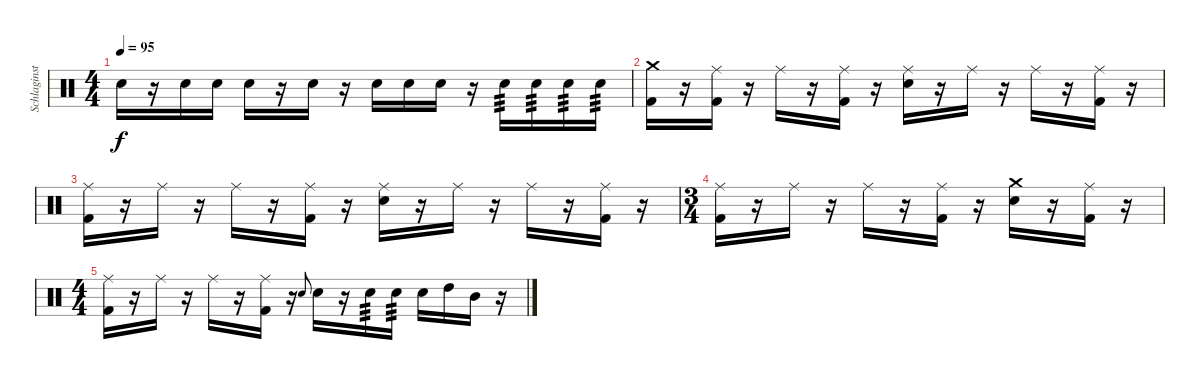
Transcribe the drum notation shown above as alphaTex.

\track ("Schlaginstrumente - Auswahl" "Schlaginst") {instrument percussion}
\staff {score}
\articulation defaults
\ts (4 4)
\tempo 95
\clef neutral
\ks c "Electric Snare (hit)".16{dy f}
r.16 "Electric Snare (hit)".16 "Electric Snare (hit)".16 "Electric Snare (hit)".16 r.16 "Electric Snare (hit)".16 r.16 "Electric Snare (hit)".16 "Electric Snare (hit)".16 "Electric Snare (hit)".16 r.16 "Electric Snare (hit)".16{tp 3} "Electric Snare (hit)".16{tp 3} "Electric Snare (hit)".16{tp 3} "Electric Snare (hit)".16{tp 3} |
("Crash medium (hit)" "Kick (hit) 2").16 r.16 ("Ride (middle)" "Kick (hit) 2").16 r.16 "Ride (middle)".16 r.16 ("Ride (middle)" "Kick (hit) 2").16 r.16 ("Ride (middle)" "Electric Snare (hit)").16 r.16 "Ride (middle)".16 r.16 "Ride (middle)".16 r.16 ("Ride (middle)" "Kick (hit) 2").16 r.16 |
("Ride (middle)" "Kick (hit) 2").16 r.16 "Ride (middle)".16 r.16 "Ride (middle)".16 r.16 ("Ride (middle)" "Kick (hit) 2").16 r.16 ("Ride (middle)" "Electric Snare (hit)").16 r.16 "Ride (middle)".16 r.16 "Ride (middle)".16 r.16 ("Ride (middle)" "Kick (hit) 2").16 r.16 |
\ts (3 4)
("Ride (middle)" "Kick (hit) 2").16 r.16 "Ride (middle)".16 r.16 "Ride (middle)".16 r.16 ("Ride (middle)" "Kick (hit) 2").16 r.16 ("Crash medium (hit)" "Electric Snare (hit)").16 r.16 ("Ride (middle)" "Kick (hit) 2").16 r.16 |
\ts (4 4)
("Ride (middle)" "Kick (hit) 2").16 r.16 "Ride (middle)".16 r.16 "Ride (middle)".16 r.16 ("Ride (middle)" "Kick (hit) 2").16 r.16 "Electric Snare (hit)".8{gr onbeat} "Electric Snare (hit)".16 r.16 "Electric Snare (hit)".16{tp 3} "Electric Snare (hit)".16{tp 3} "Electric Snare (hit)".16 "High Tom (hit)".16 "Mid Tom (hit)".16 r.16
